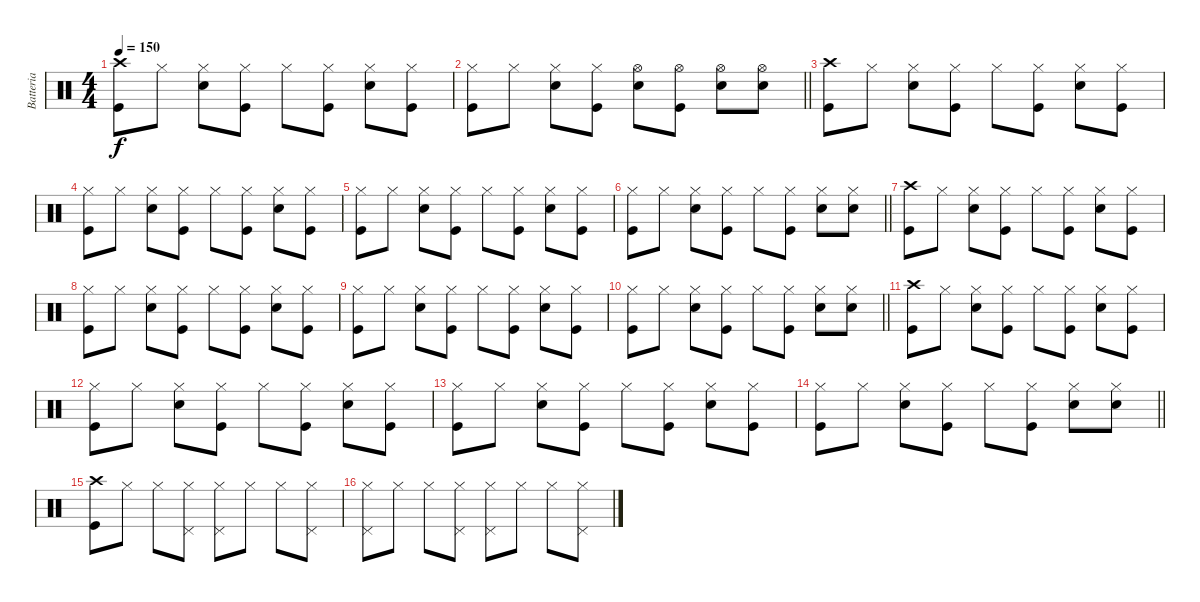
\track ("Batteria" "Batteria") {instrument percussion}
\staff {score}
\articulation defaults
\ts (4 4)
\tempo 150
\clef neutral
\ks c
("Kick (hit)" "Crash high (hit)").8{dy f} "Hi-Hat (closed)".8 ("Snare (hit) 2" "Hi-Hat (closed)").8 ("Kick (hit)" "Hi-Hat (closed)").8 "Hi-Hat (closed)".8 ("Kick (hit)" "Hi-Hat (closed)").8 ("Snare (hit) 2" "Hi-Hat (closed)").8 ("Kick (hit)" "Hi-Hat (closed)").8 |
\barLineRight lightlight
("Kick (hit)" "Hi-Hat (closed)").8 "Hi-Hat (closed)".8 ("Snare (hit) 2" "Hi-Hat (closed)").8 ("Kick (hit)" "Hi-Hat (closed)").8 ("Snare (hit) 2" "Hi-Hat (open)").8 ("Kick (hit)" "Hi-Hat (open)").8 ("Snare (hit) 2" "Hi-Hat (open)").8 ("Snare (hit) 2" "Hi-Hat (open)").8 |
("Kick (hit)" "Crash high (hit)").8 "Hi-Hat (closed)".8 ("Snare (hit) 2" "Hi-Hat (closed)").8 ("Kick (hit)" "Hi-Hat (closed)").8 "Hi-Hat (closed)".8 ("Kick (hit)" "Hi-Hat (closed)").8 ("Snare (hit) 2" "Hi-Hat (closed)").8 ("Kick (hit)" "Hi-Hat (closed)").8 |
("Kick (hit)" "Hi-Hat (closed)").8 "Hi-Hat (closed)".8 ("Snare (hit) 2" "Hi-Hat (closed)").8 ("Kick (hit)" "Hi-Hat (closed)").8 "Hi-Hat (closed)".8 ("Kick (hit)" "Hi-Hat (closed)").8 ("Snare (hit) 2" "Hi-Hat (closed)").8 ("Kick (hit)" "Hi-Hat (closed)").8 |
("Kick (hit)" "Hi-Hat (closed)").8 "Hi-Hat (closed)".8 ("Snare (hit) 2" "Hi-Hat (closed)").8 ("Kick (hit)" "Hi-Hat (closed)").8 "Hi-Hat (closed)".8 ("Kick (hit)" "Hi-Hat (closed)").8 ("Snare (hit) 2" "Hi-Hat (closed)").8 ("Kick (hit)" "Hi-Hat (closed)").8 |
\barLineRight lightlight
("Kick (hit)" "Hi-Hat (closed)").8 "Hi-Hat (closed)".8 ("Snare (hit) 2" "Hi-Hat (closed)").8 ("Kick (hit)" "Hi-Hat (closed)").8 "Hi-Hat (closed)".8 ("Kick (hit)" "Hi-Hat (closed)").8 ("Snare (hit) 2" "Hi-Hat (closed)").8 ("Hi-Hat (closed)" "Snare (hit) 2").8 |
("Kick (hit)" "Crash high (hit)").8 "Hi-Hat (closed)".8 ("Snare (hit) 2" "Hi-Hat (closed)").8 ("Kick (hit)" "Hi-Hat (closed)").8 "Hi-Hat (closed)".8 ("Kick (hit)" "Hi-Hat (closed)").8 ("Snare (hit) 2" "Hi-Hat (closed)").8 ("Kick (hit)" "Hi-Hat (closed)").8 |
("Kick (hit)" "Hi-Hat (closed)").8 "Hi-Hat (closed)".8 ("Snare (hit) 2" "Hi-Hat (closed)").8 ("Kick (hit)" "Hi-Hat (closed)").8 "Hi-Hat (closed)".8 ("Kick (hit)" "Hi-Hat (closed)").8 ("Snare (hit) 2" "Hi-Hat (closed)").8 ("Kick (hit)" "Hi-Hat (closed)").8 |
("Kick (hit)" "Hi-Hat (closed)").8 "Hi-Hat (closed)".8 ("Snare (hit) 2" "Hi-Hat (closed)").8 ("Kick (hit)" "Hi-Hat (closed)").8 "Hi-Hat (closed)".8 ("Kick (hit)" "Hi-Hat (closed)").8 ("Snare (hit) 2" "Hi-Hat (closed)").8 ("Kick (hit)" "Hi-Hat (closed)").8 |
\barLineRight lightlight
("Kick (hit)" "Hi-Hat (closed)").8 "Hi-Hat (closed)".8 ("Snare (hit) 2" "Hi-Hat (closed)").8 ("Kick (hit)" "Hi-Hat (closed)").8 "Hi-Hat (closed)".8 ("Kick (hit)" "Hi-Hat (closed)").8 ("Snare (hit) 2" "Hi-Hat (closed)").8 ("Hi-Hat (closed)" "Snare (hit) 2").8 |
("Kick (hit)" "Crash high (hit)").8 "Hi-Hat (closed)".8 ("Snare (hit) 2" "Hi-Hat (closed)").8 ("Kick (hit)" "Hi-Hat (closed)").8 "Hi-Hat (closed)".8 ("Kick (hit)" "Hi-Hat (closed)").8 ("Snare (hit) 2" "Hi-Hat (closed)").8 ("Kick (hit)" "Hi-Hat (closed)").8 |
("Kick (hit)" "Hi-Hat (closed)").8 "Hi-Hat (closed)".8 ("Snare (hit) 2" "Hi-Hat (closed)").8 ("Kick (hit)" "Hi-Hat (closed)").8 "Hi-Hat (closed)".8 ("Kick (hit)" "Hi-Hat (closed)").8 ("Snare (hit) 2" "Hi-Hat (closed)").8 ("Kick (hit)" "Hi-Hat (closed)").8 |
("Kick (hit)" "Hi-Hat (closed)").8 "Hi-Hat (closed)".8 ("Snare (hit) 2" "Hi-Hat (closed)").8 ("Kick (hit)" "Hi-Hat (closed)").8 "Hi-Hat (closed)".8 ("Kick (hit)" "Hi-Hat (closed)").8 ("Snare (hit) 2" "Hi-Hat (closed)").8 ("Kick (hit)" "Hi-Hat (closed)").8 |
\barLineRight lightlight
("Kick (hit)" "Hi-Hat (closed)").8 "Hi-Hat (closed)".8 ("Snare (hit) 2" "Hi-Hat (closed)").8 ("Kick (hit)" "Hi-Hat (closed)").8 "Hi-Hat (closed)".8 ("Kick (hit)" "Hi-Hat (closed)").8 ("Snare (hit) 2" "Hi-Hat (closed)").8 ("Hi-Hat (closed)" "Snare (hit) 2").8 |
("Kick (hit)" "Crash high (hit)").8 "Hi-Hat (closed)".8 "Hi-Hat (closed)".8 ("Pedal Hi-Hat (hit)" "Hi-Hat (closed)").8 ("Pedal Hi-Hat (hit)" "Hi-Hat (closed)").8 "Hi-Hat (closed)".8 "Hi-Hat (closed)".8 ("Hi-Hat (closed)" "Pedal Hi-Hat (hit)").8 |
("Hi-Hat (closed)" "Pedal Hi-Hat (hit)").8 "Hi-Hat (closed)".8 "Hi-Hat (closed)".8 ("Pedal Hi-Hat (hit)" "Hi-Hat (closed)").8 ("Pedal Hi-Hat (hit)" "Hi-Hat (closed)").8 "Hi-Hat (closed)".8 "Hi-Hat (closed)".8 ("Hi-Hat (closed)" "Pedal Hi-Hat (hit)").8
